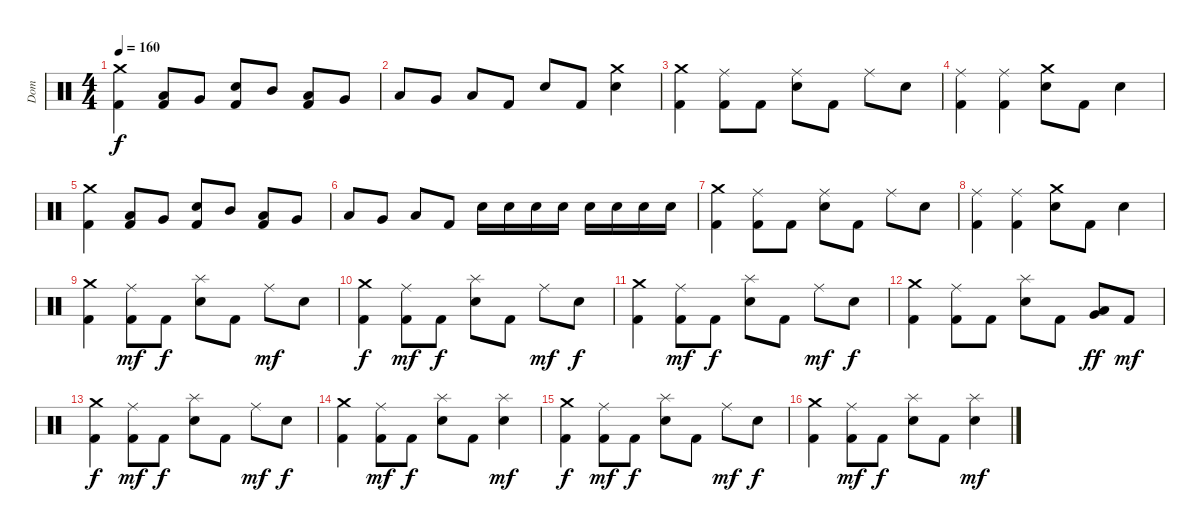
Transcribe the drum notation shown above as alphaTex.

\track ("Dom" "Dom") {instrument percussion}
\staff {score}
\articulation defaults
\ts (4 4)
\tempo 160
\clef neutral
\ks c
("Crash medium (hit)" "Kick (hit) 2").4{dy f} ("Low Tom (hit)" "Kick (hit) 2").8 "Very Low Tom (hit)".8 ("Snare (hit) 2" "Kick (hit) 2").8 "Mid Tom (hit)".8 ("Low Tom (hit)" "Kick (hit) 2").8 "Very Low Tom (hit)".8 |
"Low Tom (hit)".8 "Very Low Tom (hit)".8 "Low Floor Tom (hit)".8 "Kick (hit) 2".8 "Snare (hit) 2".8 "Kick (hit) 2".8 ("Crash medium (hit)" "Snare (hit) 2").4 |
("Crash medium (hit)" "Kick (hit) 2").4 ("Ride (middle)" "Kick (hit) 2").8 "Kick (hit) 2".8 ("Ride (middle)" "Snare (hit) 2").8 "Kick (hit) 2".8 "Ride (middle)".8 "Snare (hit) 2".8 |
("Ride (middle)" "Kick (hit) 2").4 ("Ride (middle)" "Kick (hit) 2").4 ("Crash medium (hit)" "Snare (hit) 2").8 "Kick (hit) 2".8 "Snare (hit) 2".4 |
("Crash medium (hit)" "Kick (hit) 2").4 ("Low Tom (hit)" "Kick (hit) 2").8 "Very Low Tom (hit)".8 ("Snare (hit) 2" "Kick (hit) 2").8 "Mid Tom (hit)".8 ("Low Tom (hit)" "Kick (hit) 2").8 "Very Low Tom (hit)".8 |
"Low Tom (hit)".8 "Very Low Tom (hit)".8 "Low Floor Tom (hit)".8 "Kick (hit) 2".8 "Snare (hit) 2".16 "Snare (hit) 2".16 "Snare (hit) 2".16 "Snare (hit) 2".16 "Snare (hit) 2".16 "Snare (hit) 2".16 "Snare (hit) 2".16 "Snare (hit) 2".16 |
("Crash medium (hit)" "Kick (hit) 2").4 ("Ride (middle)" "Kick (hit) 2").8 "Kick (hit) 2".8 ("Ride (middle)" "Snare (hit) 2").8 "Kick (hit) 2".8 "Ride (middle)".8 "Snare (hit) 2".8 |
("Ride (middle)" "Kick (hit) 2").4 ("Ride (middle)" "Kick (hit) 2").4 ("Crash medium (hit)" "Snare (hit) 2").8 "Kick (hit) 2".8 "Snare (hit) 2".4 |
("Crash medium (hit)" "Kick (hit) 2").4 ("Ride (middle)" "Kick (hit) 2").8{dy mf} "Kick (hit) 2".8{dy f} ("Splash (hit)" "Snare (hit) 2").8 "Kick (hit) 2".8 "Ride (middle)".8{dy mf} "Snare (hit) 2".8 |
("Crash medium (hit)" "Kick (hit) 2").4{dy f} ("Ride (middle)" "Kick (hit) 2").8{dy mf} "Kick (hit) 2".8{dy f} ("Splash (hit)" "Snare (hit) 2").8 "Kick (hit) 2".8 "Ride (middle)".8{dy mf} "Snare (hit) 2".8{dy f} |
("Crash medium (hit)" "Kick (hit) 2").4 ("Ride (middle)" "Kick (hit) 2").8{dy mf} "Kick (hit) 2".8{dy f} ("Splash (hit)" "Snare (hit) 2").8 "Kick (hit) 2".8 "Ride (middle)".8{dy mf} "Snare (hit) 2".8{dy f} |
("Crash medium (hit)" "Kick (hit) 2").4 ("Ride (middle)" "Kick (hit) 2").8 "Kick (hit) 2".8 ("Splash (hit)" "Snare (hit) 2").8 "Kick (hit) 2".8 ("Very Low Tom (hit)" "Low Tom (hit)").8{dy ff} "Kick (hit) 2".8{dy mf} |
("Crash medium (hit)" "Kick (hit) 2").4{dy f} ("Ride (middle)" "Kick (hit) 2").8{dy mf} "Kick (hit) 2".8{dy f} ("Splash (hit)" "Snare (hit) 2").8 "Kick (hit) 2".8 "Ride (middle)".8{dy mf} "Snare (hit) 2".8{dy f} |
("Crash medium (hit)" "Kick (hit) 2").4 ("Ride (middle)" "Kick (hit) 2").8{dy mf} "Kick (hit) 2".8{dy f} ("Splash (hit)" "Snare (hit) 2").8 "Kick (hit) 2".8 ("Splash (hit)" "Snare (hit) 2").4{dy mf} |
("Crash medium (hit)" "Kick (hit) 2").4{dy f} ("Ride (middle)" "Kick (hit) 2").8{dy mf} "Kick (hit) 2".8{dy f} ("Splash (hit)" "Snare (hit) 2").8 "Kick (hit) 2".8 "Ride (middle)".8{dy mf} "Snare (hit) 2".8{dy f} |
("Crash medium (hit)" "Kick (hit) 2").4 ("Ride (middle)" "Kick (hit) 2").8{dy mf} "Kick (hit) 2".8{dy f} ("Splash (hit)" "Snare (hit) 2").8 "Kick (hit) 2".8 ("Splash (hit)" "Snare (hit) 2").4{dy mf}
